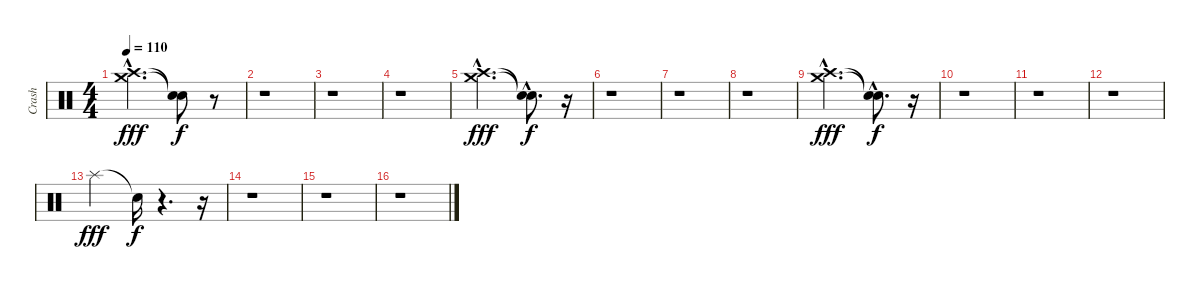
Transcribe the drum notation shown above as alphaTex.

\track ("Crash" "Crash") {instrument percussion}
\staff {score}
\articulation defaults
\ts (4 4)
\tempo 110
\clef neutral
\ks c
("Crash medium (hit)"{hac} "Crash high (hit)"{hac}).2{d dy fff} ("Snare (hit)"{t} "Snare (hit)"{t}).8{dy f} r.8 |
r.1 |
r.1 |
r.1 |
("Crash high (hit)"{hac} "Crash medium (hit)"{hac}).2{d dy fff} ("Snare (hit)"{hac t} "Snare (hit)"{t}).8{d dy f} r.16 |
r.1 |
r.1 |
r.1 |
("Crash high (hit)"{hac} "Crash medium (hit)"{hac}).2{d dy fff} ("Snare (hit)"{hac t} "Snare (hit)"{hac t}).8{d dy f} r.16 |
r.1 |
r.1 |
r.1 |
"Splash (hit)".2{dy fff} "Snare (hit)"{t}.16{dy f} r.4{d} r.16 |
r.1 |
r.1 |
r.1
